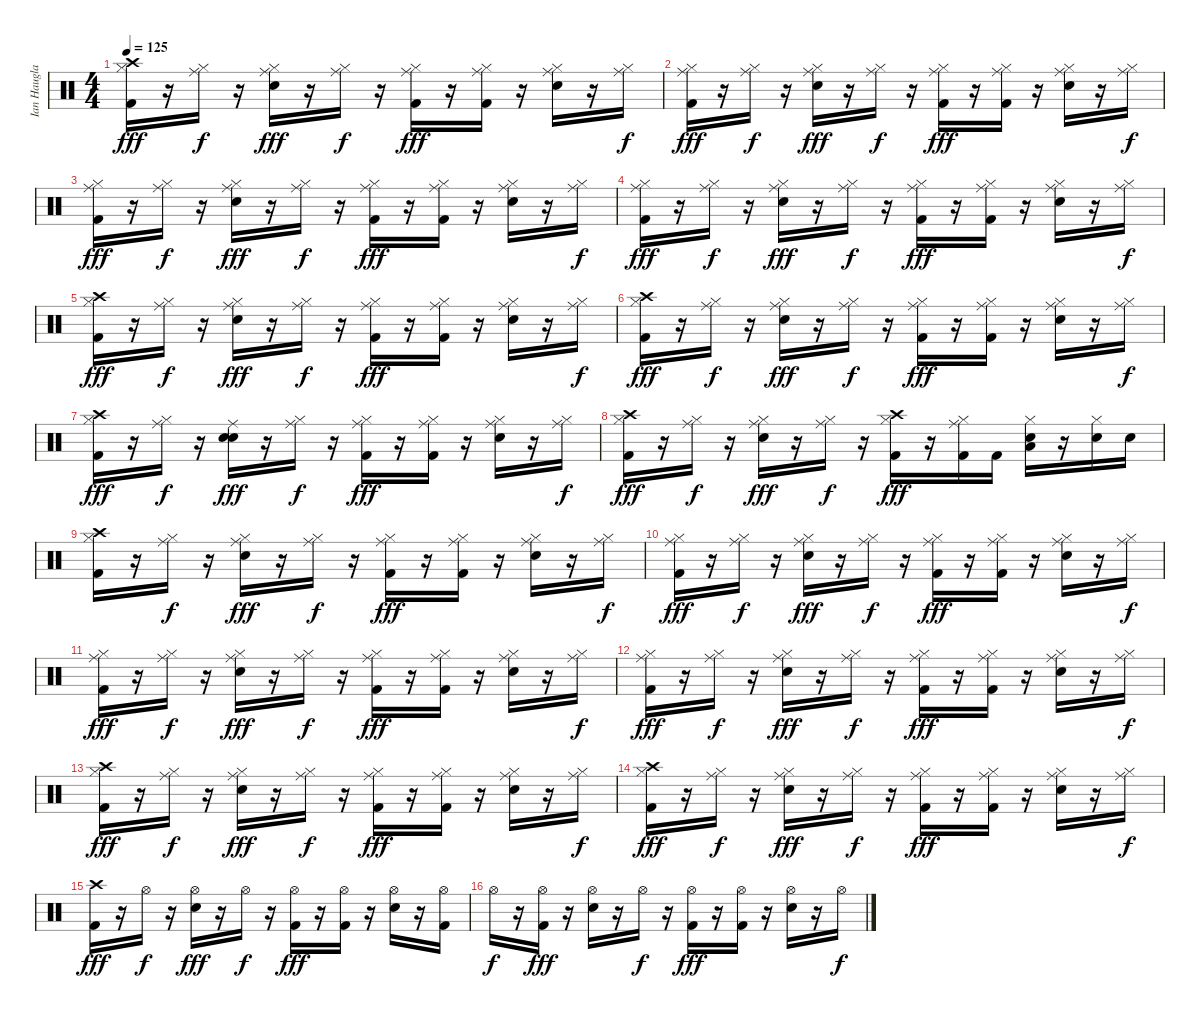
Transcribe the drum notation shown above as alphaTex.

\track ("Ian Haugland" "Ian Haugla") {instrument percussion}
\staff {score}
\articulation defaults
\ts (4 4)
\tempo 125
\clef neutral
\ks c
("Crash high (hit)" "Hi-Hat (closed)" "Kick (hit) 2").16{dy fff} r.16 ("Ride (middle)" "Hi-Hat (closed)").16{dy f} r.16 ("Ride (middle)" "Hi-Hat (closed)" "Electric Snare (hit)").16{dy fff} r.16 ("Ride (middle)" "Hi-Hat (closed)").16{dy f} r.16 ("Ride (middle)" "Hi-Hat (closed)" "Kick (hit) 2").16{dy fff} r.16 ("Ride (middle)" "Hi-Hat (closed)" "Kick (hit) 2").16 r.16 ("Ride (middle)" "Hi-Hat (closed)" "Electric Snare (hit)").16 r.16 ("Ride (middle)" "Hi-Hat (closed)").16{dy f} |
("Ride (middle)" "Hi-Hat (closed)" "Kick (hit) 2").16{dy fff} r.16 ("Ride (middle)" "Hi-Hat (closed)").16{dy f} r.16 ("Ride (middle)" "Hi-Hat (closed)" "Electric Snare (hit)").16{dy fff} r.16 ("Ride (middle)" "Hi-Hat (closed)").16{dy f} r.16 ("Ride (middle)" "Hi-Hat (closed)" "Kick (hit) 2").16{dy fff} r.16 ("Ride (middle)" "Hi-Hat (closed)" "Kick (hit) 2").16 r.16 ("Ride (middle)" "Hi-Hat (closed)" "Electric Snare (hit)").16 r.16 ("Ride (middle)" "Hi-Hat (closed)").16{dy f} |
("Ride (middle)" "Hi-Hat (closed)" "Kick (hit) 2").16{dy fff} r.16 ("Ride (middle)" "Hi-Hat (closed)").16{dy f} r.16 ("Ride (middle)" "Hi-Hat (closed)" "Electric Snare (hit)").16{dy fff} r.16 ("Ride (middle)" "Hi-Hat (closed)").16{dy f} r.16 ("Ride (middle)" "Hi-Hat (closed)" "Kick (hit) 2").16{dy fff} r.16 ("Ride (middle)" "Hi-Hat (closed)" "Kick (hit) 2").16 r.16 ("Ride (middle)" "Hi-Hat (closed)" "Electric Snare (hit)").16 r.16 ("Ride (middle)" "Hi-Hat (closed)").16{dy f} |
("Ride (middle)" "Hi-Hat (closed)" "Kick (hit) 2").16{dy fff} r.16 ("Ride (middle)" "Hi-Hat (closed)").16{dy f} r.16 ("Ride (middle)" "Hi-Hat (closed)" "Electric Snare (hit)").16{dy fff} r.16 ("Ride (middle)" "Hi-Hat (closed)").16{dy f} r.16 ("Ride (middle)" "Hi-Hat (closed)" "Kick (hit) 2").16{dy fff} r.16 ("Ride (middle)" "Hi-Hat (closed)" "Kick (hit) 2").16 r.16 ("Ride (middle)" "Hi-Hat (closed)" "Electric Snare (hit)").16 r.16 ("Ride (middle)" "Hi-Hat (closed)").16{dy f} |
("Crash high (hit)" "Hi-Hat (closed)" "Kick (hit) 2").16{dy fff} r.16 ("Ride (middle)" "Hi-Hat (closed)").16{dy f} r.16 ("Ride (middle)" "Hi-Hat (closed)" "Electric Snare (hit)").16{dy fff} r.16 ("Ride (middle)" "Hi-Hat (closed)").16{dy f} r.16 ("Ride (middle)" "Hi-Hat (closed)" "Kick (hit) 2").16{dy fff} r.16 ("Ride (middle)" "Hi-Hat (closed)" "Kick (hit) 2").16 r.16 ("Ride (middle)" "Hi-Hat (closed)" "Electric Snare (hit)").16 r.16 ("Ride (middle)" "Hi-Hat (closed)").16{dy f} |
("Crash high (hit)" "Hi-Hat (closed)" "Kick (hit) 2").16{dy fff} r.16 ("Ride (middle)" "Hi-Hat (closed)").16{dy f} r.16 ("Ride (middle)" "Hi-Hat (closed)" "Electric Snare (hit)").16{dy fff} r.16 ("Ride (middle)" "Hi-Hat (closed)").16{dy f} r.16 ("Ride (middle)" "Hi-Hat (closed)" "Kick (hit) 2").16{dy fff} r.16 ("Ride (middle)" "Hi-Hat (closed)" "Kick (hit) 2").16 r.16 ("Ride (middle)" "Hi-Hat (closed)" "Electric Snare (hit)").16 r.16 ("Ride (middle)" "Hi-Hat (closed)").16{dy f} |
("Crash high (hit)" "Hi-Hat (closed)" "Kick (hit) 2").16{dy fff} r.16 ("Ride (middle)" "Hi-Hat (closed)").16{dy f} r.16 ("Ride (middle)" "Snare (hit)" "Electric Snare (hit)").16{dy fff} r.16 ("Ride (middle)" "Hi-Hat (closed)").16{dy f} r.16 ("Ride (middle)" "Hi-Hat (closed)" "Kick (hit) 2").16{dy fff} r.16 ("Ride (middle)" "Hi-Hat (closed)" "Kick (hit) 2").16 r.16 ("Ride (middle)" "Hi-Hat (closed)" "Electric Snare (hit)").16 r.16 ("Ride (middle)" "Hi-Hat (closed)").16{dy f} |
("Crash high (hit)" "Hi-Hat (closed)" "Kick (hit) 2").16{dy fff} r.16 ("Ride (middle)" "Hi-Hat (closed)").16{dy f} r.16 ("Ride (middle)" "Hi-Hat (closed)" "Electric Snare (hit)").16{dy fff} r.16 ("Ride (middle)" "Hi-Hat (closed)").16{dy f} r.16 ("Crash high (hit)" "Hi-Hat (closed)" "Kick (hit) 2").16{dy fff} r.16 ("Ride (middle)" "Hi-Hat (closed)" "Kick (hit) 2").16 "Kick (hit) 2".16 ("Hi-Hat (closed)" "Low Floor Tom (hit)" "Electric Snare (hit)").16 r.16 ("Hi-Hat (closed)" "Electric Snare (hit)").16 "Electric Snare (hit)".16 |
("Crash high (hit)" "Hi-Hat (closed)" "Kick (hit) 2").16 r.16 ("Ride (middle)" "Hi-Hat (closed)").16{dy f} r.16 ("Ride (middle)" "Hi-Hat (closed)" "Electric Snare (hit)").16{dy fff} r.16 ("Ride (middle)" "Hi-Hat (closed)").16{dy f} r.16 ("Ride (middle)" "Hi-Hat (closed)" "Kick (hit) 2").16{dy fff} r.16 ("Ride (middle)" "Hi-Hat (closed)" "Kick (hit) 2").16 r.16 ("Ride (middle)" "Hi-Hat (closed)" "Electric Snare (hit)").16 r.16 ("Ride (middle)" "Hi-Hat (closed)").16{dy f} |
("Ride (middle)" "Hi-Hat (closed)" "Kick (hit) 2").16{dy fff} r.16 ("Ride (middle)" "Hi-Hat (closed)").16{dy f} r.16 ("Ride (middle)" "Hi-Hat (closed)" "Electric Snare (hit)").16{dy fff} r.16 ("Ride (middle)" "Hi-Hat (closed)").16{dy f} r.16 ("Ride (middle)" "Hi-Hat (closed)" "Kick (hit) 2").16{dy fff} r.16 ("Ride (middle)" "Hi-Hat (closed)" "Kick (hit) 2").16 r.16 ("Ride (middle)" "Hi-Hat (closed)" "Electric Snare (hit)").16 r.16 ("Ride (middle)" "Hi-Hat (closed)").16{dy f} |
("Ride (middle)" "Hi-Hat (closed)" "Kick (hit) 2").16{dy fff} r.16 ("Ride (middle)" "Hi-Hat (closed)").16{dy f} r.16 ("Ride (middle)" "Hi-Hat (closed)" "Electric Snare (hit)").16{dy fff} r.16 ("Ride (middle)" "Hi-Hat (closed)").16{dy f} r.16 ("Ride (middle)" "Hi-Hat (closed)" "Kick (hit) 2").16{dy fff} r.16 ("Ride (middle)" "Hi-Hat (closed)" "Kick (hit) 2").16 r.16 ("Ride (middle)" "Hi-Hat (closed)" "Electric Snare (hit)").16 r.16 ("Ride (middle)" "Hi-Hat (closed)").16{dy f} |
("Ride (middle)" "Hi-Hat (closed)" "Kick (hit) 2").16{dy fff} r.16 ("Ride (middle)" "Hi-Hat (closed)").16{dy f} r.16 ("Ride (middle)" "Hi-Hat (closed)" "Electric Snare (hit)").16{dy fff} r.16 ("Ride (middle)" "Hi-Hat (closed)").16{dy f} r.16 ("Ride (middle)" "Hi-Hat (closed)" "Kick (hit) 2").16{dy fff} r.16 ("Ride (middle)" "Hi-Hat (closed)" "Kick (hit) 2").16 r.16 ("Ride (middle)" "Hi-Hat (closed)" "Electric Snare (hit)").16 r.16 ("Ride (middle)" "Hi-Hat (closed)").16{dy f} |
("Crash high (hit)" "Hi-Hat (closed)" "Kick (hit) 2").16{dy fff} r.16 ("Ride (middle)" "Hi-Hat (closed)").16{dy f} r.16 ("Ride (middle)" "Hi-Hat (closed)" "Electric Snare (hit)").16{dy fff} r.16 ("Ride (middle)" "Hi-Hat (closed)").16{dy f} r.16 ("Ride (middle)" "Hi-Hat (closed)" "Kick (hit) 2").16{dy fff} r.16 ("Ride (middle)" "Hi-Hat (closed)" "Kick (hit) 2").16 r.16 ("Ride (middle)" "Hi-Hat (closed)" "Electric Snare (hit)").16 r.16 ("Ride (middle)" "Hi-Hat (closed)").16{dy f} |
("Crash high (hit)" "Hi-Hat (closed)" "Kick (hit) 2").16{dy fff} r.16 ("Ride (middle)" "Hi-Hat (closed)").16{dy f} r.16 ("Ride (middle)" "Hi-Hat (closed)" "Electric Snare (hit)").16{dy fff} r.16 ("Ride (middle)" "Hi-Hat (closed)").16{dy f} r.16 ("Ride (middle)" "Hi-Hat (closed)" "Kick (hit) 2").16{dy fff} r.16 ("Ride (middle)" "Hi-Hat (closed)" "Kick (hit) 2").16 r.16 ("Ride (middle)" "Hi-Hat (closed)" "Electric Snare (hit)").16 r.16 ("Ride (middle)" "Hi-Hat (closed)").16{dy f} |
("Crash high (hit)" "Kick (hit) 2").16{dy fff} r.16 "Hi-Hat (open)".16{dy f} r.16 ("Hi-Hat (open)" "Electric Snare (hit)").16{dy fff} r.16 "Hi-Hat (open)".16{dy f} r.16 ("Hi-Hat (open)" "Kick (hit) 2").16{dy fff} r.16 ("Hi-Hat (open)" "Kick (hit) 2").16 r.16 ("Hi-Hat (open)" "Electric Snare (hit)").16 r.16 ("Hi-Hat (open)" "Kick (hit) 2").16 |
"Hi-Hat (open)".16{dy f} r.16 ("Hi-Hat (open)" "Kick (hit) 2").16{dy fff} r.16 ("Hi-Hat (open)" "Electric Snare (hit)").16 r.16 "Hi-Hat (open)".16{dy f} r.16 ("Hi-Hat (open)" "Kick (hit) 2").16{dy fff} r.16 ("Hi-Hat (open)" "Kick (hit) 2").16 r.16 ("Hi-Hat (open)" "Electric Snare (hit)").16 r.16 "Hi-Hat (open)".16{dy f}
